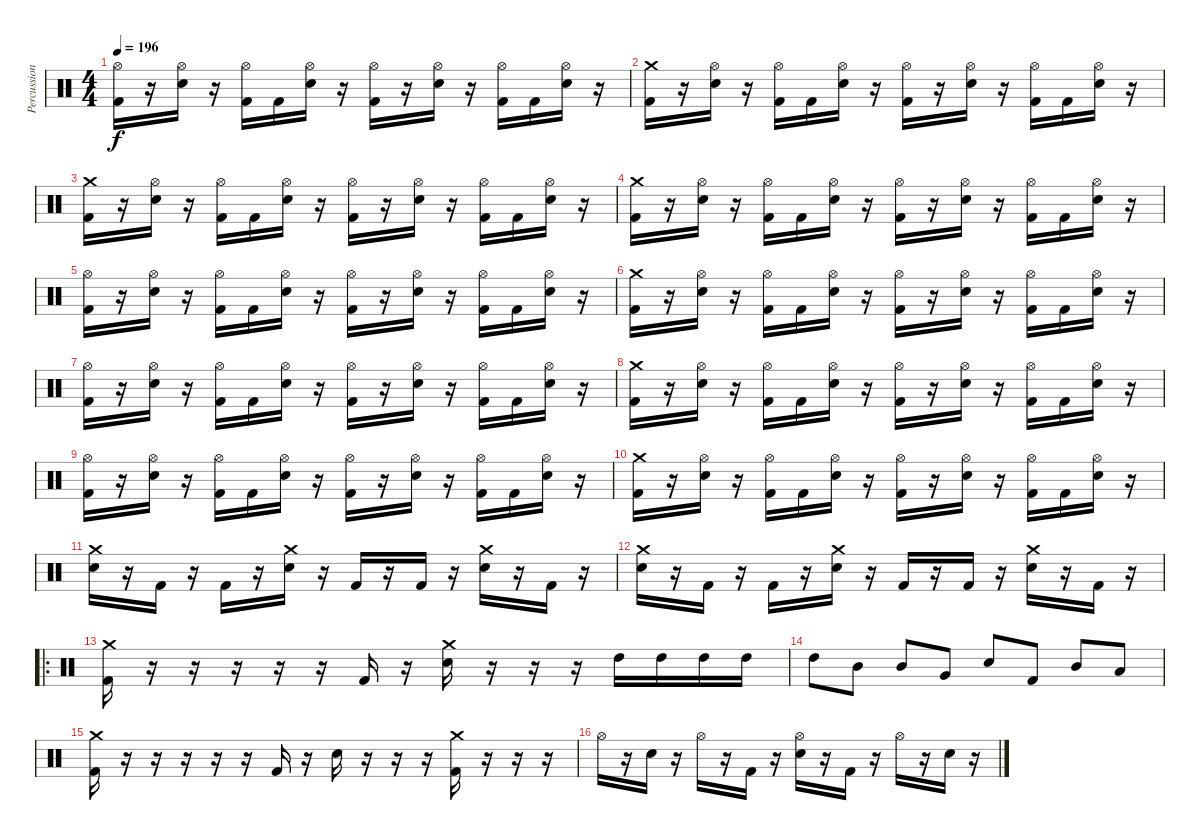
\track ("Percussion" "Percussion") {instrument percussion}
\staff {score}
\articulation defaults
\ts (4 4)
\tempo 196
\clef neutral
\ks c
("Hi-Hat (open)" "Kick (hit) 2").16{dy f} r.16 ("Hi-Hat (open)" "Electric Snare (hit)").16 r.16 ("Hi-Hat (open)" "Kick (hit) 2").16 "Kick (hit) 2".16 ("Hi-Hat (open)" "Electric Snare (hit)").16 r.16 ("Hi-Hat (open)" "Kick (hit) 2").16 r.16 ("Hi-Hat (open)" "Electric Snare (hit)").16 r.16 ("Hi-Hat (open)" "Kick (hit) 2").16 "Kick (hit) 2".16 ("Hi-Hat (open)" "Electric Snare (hit)").16 r.16 |
("Crash medium (hit)" "Kick (hit) 2").16 r.16 ("Hi-Hat (open)" "Electric Snare (hit)").16 r.16 ("Hi-Hat (open)" "Kick (hit) 2").16 "Kick (hit) 2".16 ("Hi-Hat (open)" "Electric Snare (hit)").16 r.16 ("Hi-Hat (open)" "Kick (hit) 2").16 r.16 ("Hi-Hat (open)" "Electric Snare (hit)").16 r.16 ("Hi-Hat (open)" "Kick (hit) 2").16 "Kick (hit) 2".16 ("Hi-Hat (open)" "Electric Snare (hit)").16 r.16 |
("Crash medium (hit)" "Kick (hit) 2").16 r.16 ("Hi-Hat (open)" "Electric Snare (hit)").16 r.16 ("Hi-Hat (open)" "Kick (hit) 2").16 "Kick (hit) 2".16 ("Hi-Hat (open)" "Electric Snare (hit)").16 r.16 ("Hi-Hat (open)" "Kick (hit) 2").16 r.16 ("Hi-Hat (open)" "Electric Snare (hit)").16 r.16 ("Hi-Hat (open)" "Kick (hit) 2").16 "Kick (hit) 2".16 ("Hi-Hat (open)" "Electric Snare (hit)").16 r.16 |
("Crash medium (hit)" "Kick (hit) 2").16 r.16 ("Hi-Hat (open)" "Electric Snare (hit)").16 r.16 ("Hi-Hat (open)" "Kick (hit) 2").16 "Kick (hit) 2".16 ("Hi-Hat (open)" "Electric Snare (hit)").16 r.16 ("Hi-Hat (open)" "Kick (hit) 2").16 r.16 ("Hi-Hat (open)" "Electric Snare (hit)").16 r.16 ("Hi-Hat (open)" "Kick (hit) 2").16 "Kick (hit) 2".16 ("Hi-Hat (open)" "Electric Snare (hit)").16 r.16 |
("Hi-Hat (open)" "Kick (hit) 2").16 r.16 ("Hi-Hat (open)" "Electric Snare (hit)").16 r.16 ("Hi-Hat (open)" "Kick (hit) 2").16 "Kick (hit) 2".16 ("Hi-Hat (open)" "Electric Snare (hit)").16 r.16 ("Hi-Hat (open)" "Kick (hit) 2").16 r.16 ("Hi-Hat (open)" "Electric Snare (hit)").16 r.16 ("Hi-Hat (open)" "Kick (hit) 2").16 "Kick (hit) 2".16 ("Hi-Hat (open)" "Electric Snare (hit)").16 r.16 |
("Crash medium (hit)" "Kick (hit) 2").16 r.16 ("Hi-Hat (open)" "Electric Snare (hit)").16 r.16 ("Hi-Hat (open)" "Kick (hit) 2").16 "Kick (hit) 2".16 ("Hi-Hat (open)" "Electric Snare (hit)").16 r.16 ("Hi-Hat (open)" "Kick (hit) 2").16 r.16 ("Hi-Hat (open)" "Electric Snare (hit)").16 r.16 ("Hi-Hat (open)" "Kick (hit) 2").16 "Kick (hit) 2".16 ("Hi-Hat (open)" "Electric Snare (hit)").16 r.16 |
("Hi-Hat (open)" "Kick (hit) 2").16 r.16 ("Hi-Hat (open)" "Electric Snare (hit)").16 r.16 ("Hi-Hat (open)" "Kick (hit) 2").16 "Kick (hit) 2".16 ("Hi-Hat (open)" "Electric Snare (hit)").16 r.16 ("Hi-Hat (open)" "Kick (hit) 2").16 r.16 ("Hi-Hat (open)" "Electric Snare (hit)").16 r.16 ("Hi-Hat (open)" "Kick (hit) 2").16 "Kick (hit) 2".16 ("Hi-Hat (open)" "Electric Snare (hit)").16 r.16 |
("Crash medium (hit)" "Kick (hit) 2").16 r.16 ("Hi-Hat (open)" "Electric Snare (hit)").16 r.16 ("Hi-Hat (open)" "Kick (hit) 2").16 "Kick (hit) 2".16 ("Hi-Hat (open)" "Electric Snare (hit)").16 r.16 ("Hi-Hat (open)" "Kick (hit) 2").16 r.16 ("Hi-Hat (open)" "Electric Snare (hit)").16 r.16 ("Hi-Hat (open)" "Kick (hit) 2").16 "Kick (hit) 2".16 ("Hi-Hat (open)" "Electric Snare (hit)").16 r.16 |
("Hi-Hat (open)" "Kick (hit) 2").16 r.16 ("Hi-Hat (open)" "Electric Snare (hit)").16 r.16 ("Hi-Hat (open)" "Kick (hit) 2").16 "Kick (hit) 2".16 ("Hi-Hat (open)" "Electric Snare (hit)").16 r.16 ("Hi-Hat (open)" "Kick (hit) 2").16 r.16 ("Hi-Hat (open)" "Electric Snare (hit)").16 r.16 ("Hi-Hat (open)" "Kick (hit) 2").16 "Kick (hit) 2".16 ("Hi-Hat (open)" "Electric Snare (hit)").16 r.16 |
("Crash medium (hit)" "Kick (hit) 2").16 r.16 ("Hi-Hat (open)" "Electric Snare (hit)").16 r.16 ("Hi-Hat (open)" "Kick (hit) 2").16 "Kick (hit) 2".16 ("Hi-Hat (open)" "Electric Snare (hit)").16 r.16 ("Hi-Hat (open)" "Kick (hit) 2").16 r.16 ("Hi-Hat (open)" "Electric Snare (hit)").16 r.16 ("Hi-Hat (open)" "Kick (hit) 2").16 "Kick (hit) 2".16 ("Hi-Hat (open)" "Electric Snare (hit)").16 r.16 |
("Crash medium (hit)" "Electric Snare (hit)").16 r.16 "Kick (hit) 2".16 r.16 "Kick (hit) 2".16 r.16 ("Crash medium (hit)" "Electric Snare (hit)").16 r.16 "Kick (hit) 2".16 r.16 "Kick (hit) 2".16 r.16 ("Crash medium (hit)" "Electric Snare (hit)").16 r.16 "Kick (hit) 2".16 r.16 |
("Crash medium (hit)" "Electric Snare (hit)").16 r.16 "Kick (hit) 2".16 r.16 "Kick (hit) 2".16 r.16 ("Crash medium (hit)" "Electric Snare (hit)").16 r.16 "Kick (hit) 2".16 r.16 "Kick (hit) 2".16 r.16 ("Crash medium (hit)" "Electric Snare (hit)").16 r.16 "Kick (hit) 2".16 r.16 |
\ro
("Crash medium (hit)" "Kick (hit) 2").16 r.16 r.16 r.16 r.16 r.16 "Kick (hit) 2".16 r.16 ("Crash medium (hit)" "Electric Snare (hit)").16 r.16 r.16 r.16 "High Tom (hit)".16 "High Tom (hit)".16 "High Tom (hit)".16 "High Tom (hit)".16 |
"High Tom (hit)".8 "Mid Tom (hit)".8 "Mid Tom (hit)".8 "Very Low Tom (hit)".8 "Electric Snare (hit)".8 "Kick (hit) 2".8 "Mid Tom (hit)".8 "Low Tom (hit)".8 |
("Crash medium (hit)" "Kick (hit) 2").16 r.16 r.16 r.16 r.16 r.16 "Kick (hit) 2".16 r.16 "Electric Snare (hit)".16 r.16 r.16 r.16 ("Crash medium (hit)" "Kick (hit) 2").16 r.16 r.16 r.16 |
"Hi-Hat (open)".16 r.16 "Electric Snare (hit)".16 r.16 "Hi-Hat (open)".16 r.16 "Kick (hit) 2".16 r.16 ("Hi-Hat (open)" "Electric Snare (hit)").16 r.16 "Kick (hit) 2".16 r.16 "Hi-Hat (open)".16 r.16 "Electric Snare (hit)".16 r.16
